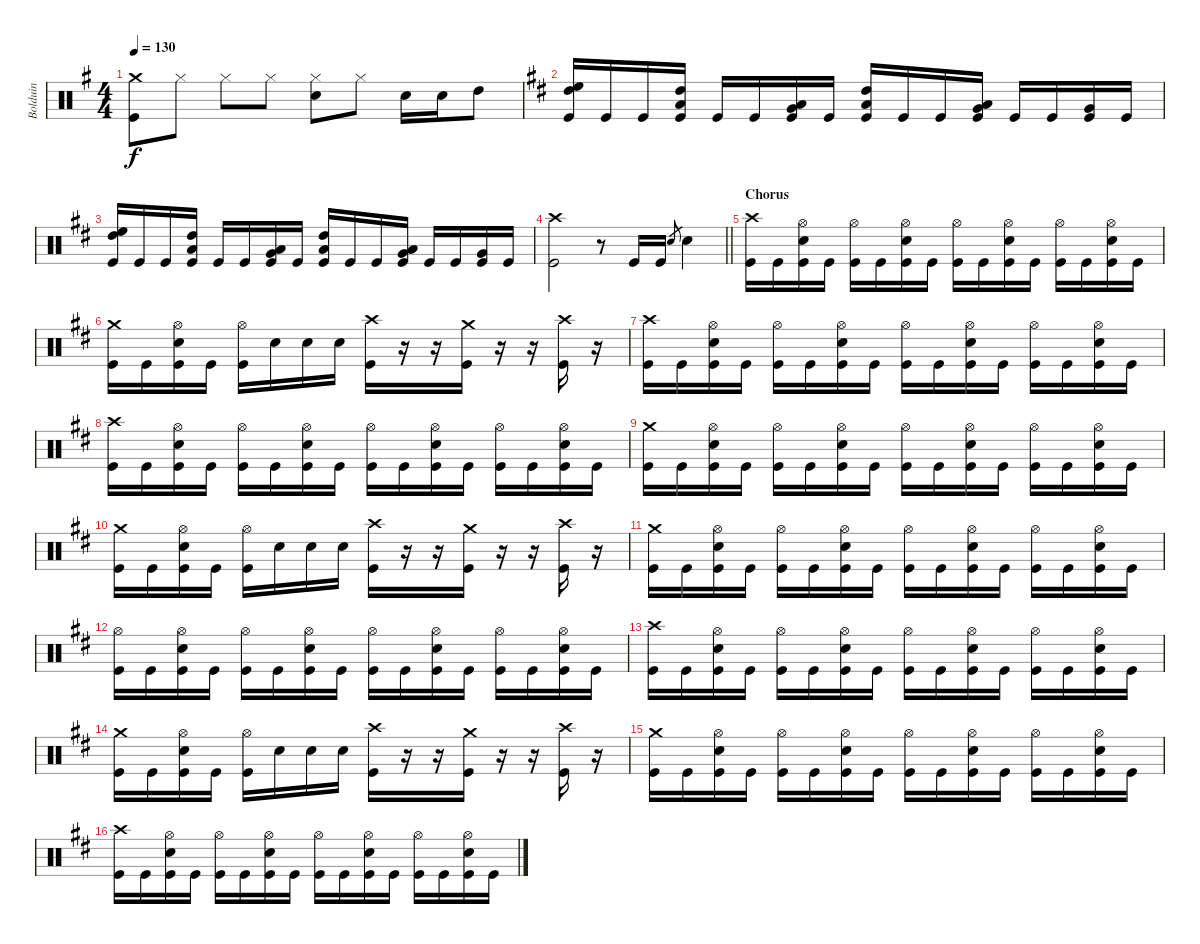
\track ("Bolduin" "Bolduin") {instrument percussion}
\staff {score}
\articulation defaults
\ts (4 4)
\tempo 130
\clef neutral
\ks eminor
("Crash medium (hit)" "Kick (hit)").8{dy f} "Hi-Hat (closed)".8 "Hi-Hat (closed)".8 "Hi-Hat (closed)".8 ("Hi-Hat (closed)" "Snare (hit) 2").8 "Hi-Hat (closed)".8 "Snare (hit) 2".16 "Snare (hit) 2".16 "High Tom (hit)".8 |
\ks bminor
("Kick (hit)" "High Floor Tom (hit)" "High Tom (hit)").16 "Kick (hit)".16 "Kick (hit)".16 ("Kick (hit)" "High Tom (hit)" "Low Tom (hit)").16 "Kick (hit)".16 "Kick (hit)".16 ("Kick (hit)" "Low Tom (hit)" "Very Low Tom (hit)").16 "Kick (hit)".16 ("High Tom (hit)" "Kick (hit)" "Low Tom (hit)").16 "Kick (hit)".16 "Kick (hit)".16 ("Low Tom (hit)" "Kick (hit)" "Very Low Tom (hit)").16 "Kick (hit)".16 "Kick (hit)".16 ("Kick (hit)" "Very Low Tom (hit)").16 "Kick (hit)".16 |
("Kick (hit)" "High Floor Tom (hit)" "High Tom (hit)").16 "Kick (hit)".16 "Kick (hit)".16 ("Kick (hit)" "High Tom (hit)" "Low Tom (hit)").16 "Kick (hit)".16 "Kick (hit)".16 ("Kick (hit)" "Low Tom (hit)" "Very Low Tom (hit)").16 "Kick (hit)".16 ("High Tom (hit)" "Kick (hit)" "Low Tom (hit)").16 "Kick (hit)".16 "Kick (hit)".16 ("Low Tom (hit)" "Kick (hit)" "Very Low Tom (hit)").16 "Kick (hit)".16 "Kick (hit)".16 ("Kick (hit)" "Very Low Tom (hit)").16 "Kick (hit)".16 |
\barLineRight lightlight
("Kick (hit)" "Crash high (hit)").2 r.8 "Kick (hit)".16 "Kick (hit)".16 "Snare (hit) 2".8{gr} "Snare (hit) 2".4 |
\section ("" "Chorus")
("Crash high (hit)" "Kick (hit)").16 "Kick (hit)".16 ("Hi-Hat (open)" "Kick (hit)" "Snare (hit) 2").16 "Kick (hit)".16 ("Hi-Hat (open)" "Kick (hit)").16 "Kick (hit)".16 ("Hi-Hat (open)" "Kick (hit)" "Snare (hit) 2").16 "Kick (hit)".16 ("Hi-Hat (open)" "Kick (hit)").16 "Kick (hit)".16 ("Hi-Hat (open)" "Kick (hit)" "Snare (hit) 2").16 "Kick (hit)".16 ("Hi-Hat (open)" "Kick (hit)").16 "Kick (hit)".16 ("Hi-Hat (open)" "Kick (hit)" "Snare (hit) 2").16 "Kick (hit)".16 |
("Crash medium (hit)" "Kick (hit)").16 "Kick (hit)".16 ("Hi-Hat (open)" "Kick (hit)" "Snare (hit) 2").16 "Kick (hit)".16 ("Hi-Hat (open)" "Kick (hit)").16 "Snare (hit) 2".16 "Snare (hit) 2".16 "Snare (hit) 2".16 ("Kick (hit)" "Crash high (hit)").16 r.16 r.16 ("Crash medium (hit)" "Kick (hit)").16 r.16 r.16 ("Kick (hit)" "Crash high (hit)").16 r.16 |
("Kick (hit)" "Crash high (hit)").16 "Kick (hit)".16 ("Kick (hit)" "Hi-Hat (open)" "Snare (hit) 2").16 "Kick (hit)".16 ("Kick (hit)" "Hi-Hat (open)").16 "Kick (hit)".16 ("Kick (hit)" "Hi-Hat (open)" "Snare (hit) 2").16 "Kick (hit)".16 ("Kick (hit)" "Hi-Hat (open)").16 "Kick (hit)".16 ("Kick (hit)" "Hi-Hat (open)" "Snare (hit) 2").16 "Kick (hit)".16 ("Kick (hit)" "Hi-Hat (open)").16 "Kick (hit)".16 ("Kick (hit)" "Hi-Hat (open)" "Snare (hit) 2").16 "Kick (hit)".16 |
("Kick (hit)" "Crash high (hit)").16 "Kick (hit)".16 ("Kick (hit)" "Hi-Hat (open)" "Snare (hit) 2").16 "Kick (hit)".16 ("Kick (hit)" "Hi-Hat (open)").16 "Kick (hit)".16 ("Kick (hit)" "Hi-Hat (open)" "Snare (hit) 2").16 "Kick (hit)".16 ("Kick (hit)" "Hi-Hat (open)").16 "Kick (hit)".16 ("Kick (hit)" "Hi-Hat (open)" "Snare (hit) 2").16 "Kick (hit)".16 ("Kick (hit)" "Hi-Hat (open)").16 "Kick (hit)".16 ("Kick (hit)" "Hi-Hat (open)" "Snare (hit) 2").16 "Kick (hit)".16 |
("Kick (hit)" "Crash medium (hit)").16 "Kick (hit)".16 ("Kick (hit)" "Hi-Hat (open)" "Snare (hit) 2").16 "Kick (hit)".16 ("Kick (hit)" "Hi-Hat (open)").16 "Kick (hit)".16 ("Kick (hit)" "Hi-Hat (open)" "Snare (hit) 2").16 "Kick (hit)".16 ("Kick (hit)" "Hi-Hat (open)").16 "Kick (hit)".16 ("Kick (hit)" "Hi-Hat (open)" "Snare (hit) 2").16 "Kick (hit)".16 ("Kick (hit)" "Hi-Hat (open)").16 "Kick (hit)".16 ("Kick (hit)" "Hi-Hat (open)" "Snare (hit) 2").16 "Kick (hit)".16 |
("Crash medium (hit)" "Kick (hit)").16 "Kick (hit)".16 ("Hi-Hat (open)" "Kick (hit)" "Snare (hit) 2").16 "Kick (hit)".16 ("Hi-Hat (open)" "Kick (hit)").16 "Snare (hit) 2".16 "Snare (hit) 2".16 "Snare (hit) 2".16 ("Kick (hit)" "Crash high (hit)").16 r.16 r.16 ("Crash medium (hit)" "Kick (hit)").16 r.16 r.16 ("Kick (hit)" "Crash high (hit)").16 r.16 |
("Kick (hit)" "Crash medium (hit)").16 "Kick (hit)".16 ("Kick (hit)" "Hi-Hat (open)" "Snare (hit) 2").16 "Kick (hit)".16 ("Kick (hit)" "Hi-Hat (open)").16 "Kick (hit)".16 ("Kick (hit)" "Hi-Hat (open)" "Snare (hit) 2").16 "Kick (hit)".16 ("Kick (hit)" "Hi-Hat (open)").16 "Kick (hit)".16 ("Kick (hit)" "Hi-Hat (open)" "Snare (hit) 2").16 "Kick (hit)".16 ("Kick (hit)" "Hi-Hat (open)").16 "Kick (hit)".16 ("Kick (hit)" "Hi-Hat (open)" "Snare (hit) 2").16 "Kick (hit)".16 |
("Kick (hit)" "Hi-Hat (open)").16 "Kick (hit)".16 ("Kick (hit)" "Hi-Hat (open)" "Snare (hit) 2").16 "Kick (hit)".16 ("Kick (hit)" "Hi-Hat (open)").16 "Kick (hit)".16 ("Kick (hit)" "Hi-Hat (open)" "Snare (hit) 2").16 "Kick (hit)".16 ("Kick (hit)" "Hi-Hat (open)").16 "Kick (hit)".16 ("Kick (hit)" "Hi-Hat (open)" "Snare (hit) 2").16 "Kick (hit)".16 ("Kick (hit)" "Hi-Hat (open)").16 "Kick (hit)".16 ("Kick (hit)" "Hi-Hat (open)" "Snare (hit) 2").16 "Kick (hit)".16 |
("Kick (hit)" "Crash high (hit)").16 "Kick (hit)".16 ("Kick (hit)" "Hi-Hat (open)" "Snare (hit) 2").16 "Kick (hit)".16 ("Kick (hit)" "Hi-Hat (open)").16 "Kick (hit)".16 ("Kick (hit)" "Hi-Hat (open)" "Snare (hit) 2").16 "Kick (hit)".16 ("Kick (hit)" "Hi-Hat (open)").16 "Kick (hit)".16 ("Kick (hit)" "Hi-Hat (open)" "Snare (hit) 2").16 "Kick (hit)".16 ("Kick (hit)" "Hi-Hat (open)").16 "Kick (hit)".16 ("Kick (hit)" "Hi-Hat (open)" "Snare (hit) 2").16 "Kick (hit)".16 |
("Crash medium (hit)" "Kick (hit)").16 "Kick (hit)".16 ("Hi-Hat (open)" "Kick (hit)" "Snare (hit) 2").16 "Kick (hit)".16 ("Hi-Hat (open)" "Kick (hit)").16 "Snare (hit) 2".16 "Snare (hit) 2".16 "Snare (hit) 2".16 ("Kick (hit)" "Crash high (hit)").16 r.16 r.16 ("Crash medium (hit)" "Kick (hit)").16 r.16 r.16 ("Kick (hit)" "Crash high (hit)").16 r.16 |
("Kick (hit)" "Crash medium (hit)").16 "Kick (hit)".16 ("Kick (hit)" "Hi-Hat (open)" "Snare (hit) 2").16 "Kick (hit)".16 ("Kick (hit)" "Hi-Hat (open)").16 "Kick (hit)".16 ("Kick (hit)" "Hi-Hat (open)" "Snare (hit) 2").16 "Kick (hit)".16 ("Kick (hit)" "Hi-Hat (open)").16 "Kick (hit)".16 ("Kick (hit)" "Hi-Hat (open)" "Snare (hit) 2").16 "Kick (hit)".16 ("Kick (hit)" "Hi-Hat (open)").16 "Kick (hit)".16 ("Kick (hit)" "Hi-Hat (open)" "Snare (hit) 2").16 "Kick (hit)".16 |
("Kick (hit)" "Crash high (hit)").16 "Kick (hit)".16 ("Kick (hit)" "Hi-Hat (open)" "Snare (hit) 2").16 "Kick (hit)".16 ("Kick (hit)" "Hi-Hat (open)").16 "Kick (hit)".16 ("Kick (hit)" "Hi-Hat (open)" "Snare (hit) 2").16 "Kick (hit)".16 ("Kick (hit)" "Hi-Hat (open)").16 "Kick (hit)".16 ("Kick (hit)" "Hi-Hat (open)" "Snare (hit) 2").16 "Kick (hit)".16 ("Kick (hit)" "Hi-Hat (open)").16 "Kick (hit)".16 ("Kick (hit)" "Hi-Hat (open)" "Snare (hit) 2").16 "Kick (hit)".16
